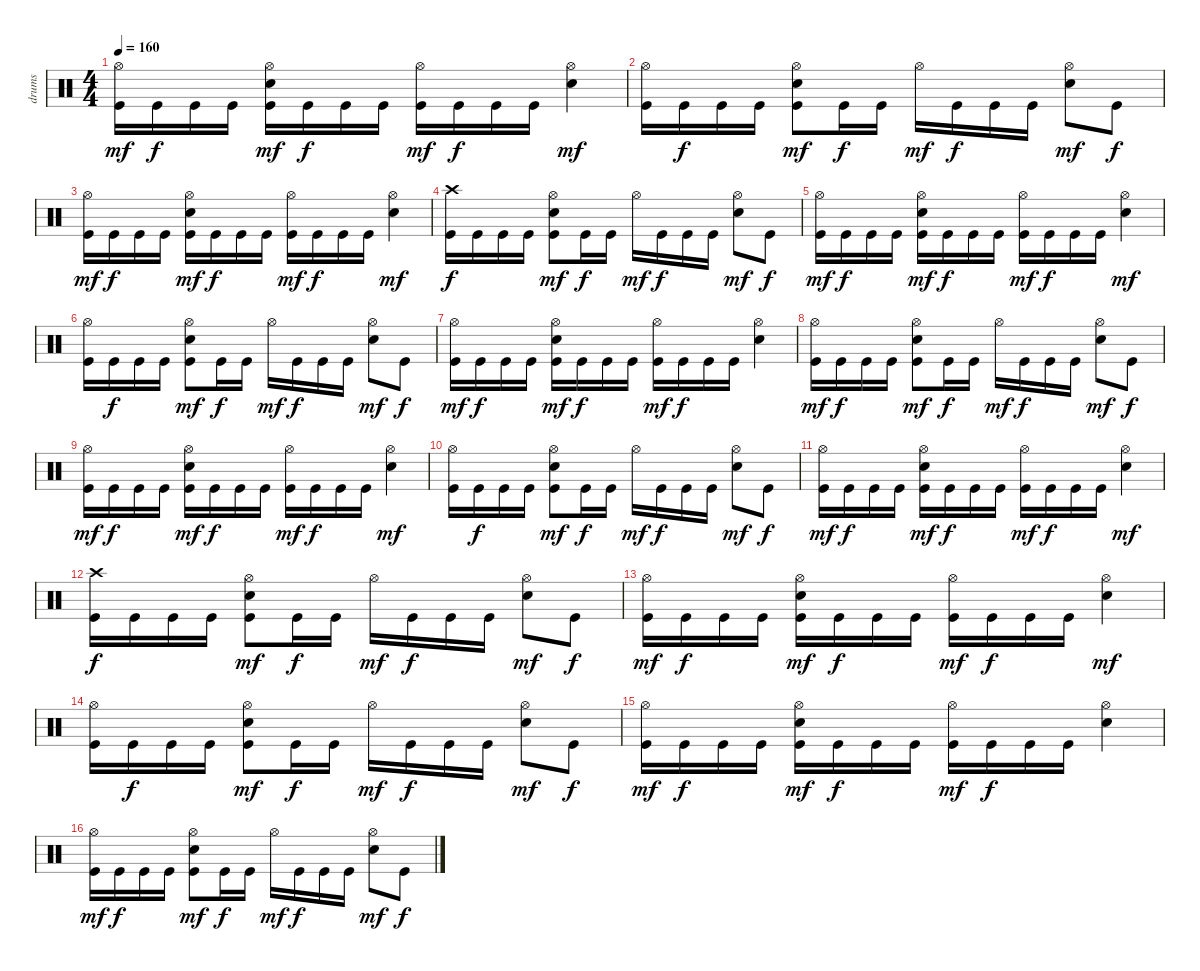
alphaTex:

\track ("drums" "drums") {instrument percussion}
\staff {score}
\articulation defaults
\ts (4 4)
\tempo 160
\clef neutral
\ks c
("Hi-Hat (open)" "Kick (hit)").16{dy mf} "Kick (hit)".16{dy f} "Kick (hit)".16 "Kick (hit)".16 ("Hi-Hat (open)" "Electric Snare (hit)" "Kick (hit)").16{dy mf} "Kick (hit)".16{dy f} "Kick (hit)".16 "Kick (hit)".16 ("Hi-Hat (open)" "Kick (hit)").16{dy mf} "Kick (hit)".16{dy f} "Kick (hit)".16 "Kick (hit)".16 ("Hi-Hat (open)" "Electric Snare (hit)").4{dy mf} |
("Hi-Hat (open)" "Kick (hit)").16 "Kick (hit)".16{dy f} "Kick (hit)".16 "Kick (hit)".16 ("Hi-Hat (open)" "Electric Snare (hit)" "Kick (hit)").8{dy mf} "Kick (hit)".16{dy f} "Kick (hit)".16 "Hi-Hat (open)".16{dy mf} "Kick (hit)".16{dy f} "Kick (hit)".16 "Kick (hit)".16 ("Hi-Hat (open)" "Electric Snare (hit)").8{dy mf} "Kick (hit)".8{dy f} |
("Hi-Hat (open)" "Kick (hit)").16{dy mf} "Kick (hit)".16{dy f} "Kick (hit)".16 "Kick (hit)".16 ("Hi-Hat (open)" "Electric Snare (hit)" "Kick (hit)").16{dy mf} "Kick (hit)".16{dy f} "Kick (hit)".16 "Kick (hit)".16 ("Hi-Hat (open)" "Kick (hit)").16{dy mf} "Kick (hit)".16{dy f} "Kick (hit)".16 "Kick (hit)".16 ("Hi-Hat (open)" "Electric Snare (hit)").4{dy mf} |
("Crash high (hit)" "Kick (hit)").16{dy f} "Kick (hit)".16 "Kick (hit)".16 "Kick (hit)".16 ("Hi-Hat (open)" "Electric Snare (hit)" "Kick (hit)").8{dy mf} "Kick (hit)".16{dy f} "Kick (hit)".16 "Hi-Hat (open)".16{dy mf} "Kick (hit)".16{dy f} "Kick (hit)".16 "Kick (hit)".16 ("Hi-Hat (open)" "Electric Snare (hit)").8{dy mf} "Kick (hit)".8{dy f} |
("Hi-Hat (open)" "Kick (hit)").16{dy mf} "Kick (hit)".16{dy f} "Kick (hit)".16 "Kick (hit)".16 ("Hi-Hat (open)" "Electric Snare (hit)" "Kick (hit)").16{dy mf} "Kick (hit)".16{dy f} "Kick (hit)".16 "Kick (hit)".16 ("Hi-Hat (open)" "Kick (hit)").16{dy mf} "Kick (hit)".16{dy f} "Kick (hit)".16 "Kick (hit)".16 ("Hi-Hat (open)" "Electric Snare (hit)").4{dy mf} |
("Hi-Hat (open)" "Kick (hit)").16 "Kick (hit)".16{dy f} "Kick (hit)".16 "Kick (hit)".16 ("Hi-Hat (open)" "Electric Snare (hit)" "Kick (hit)").8{dy mf} "Kick (hit)".16{dy f} "Kick (hit)".16 "Hi-Hat (open)".16{dy mf} "Kick (hit)".16{dy f} "Kick (hit)".16 "Kick (hit)".16 ("Hi-Hat (open)" "Electric Snare (hit)").8{dy mf} "Kick (hit)".8{dy f} |
("Hi-Hat (open)" "Kick (hit)").16{dy mf} "Kick (hit)".16{dy f} "Kick (hit)".16 "Kick (hit)".16 ("Hi-Hat (open)" "Electric Snare (hit)" "Kick (hit)").16{dy mf} "Kick (hit)".16{dy f} "Kick (hit)".16 "Kick (hit)".16 ("Hi-Hat (open)" "Kick (hit)").16{dy mf} "Kick (hit)".16{dy f} "Kick (hit)".16 "Kick (hit)".16 ("Hi-Hat (open)" "Electric Snare (hit)").4 |
("Hi-Hat (open)" "Kick (hit)").16{dy mf} "Kick (hit)".16{dy f} "Kick (hit)".16 "Kick (hit)".16 ("Hi-Hat (open)" "Electric Snare (hit)" "Kick (hit)").8{dy mf} "Kick (hit)".16{dy f} "Kick (hit)".16 "Hi-Hat (open)".16{dy mf} "Kick (hit)".16{dy f} "Kick (hit)".16 "Kick (hit)".16 ("Hi-Hat (open)" "Electric Snare (hit)").8{dy mf} "Kick (hit)".8{dy f} |
("Hi-Hat (open)" "Kick (hit)").16{dy mf} "Kick (hit)".16{dy f} "Kick (hit)".16 "Kick (hit)".16 ("Hi-Hat (open)" "Electric Snare (hit)" "Kick (hit)").16{dy mf} "Kick (hit)".16{dy f} "Kick (hit)".16 "Kick (hit)".16 ("Hi-Hat (open)" "Kick (hit)").16{dy mf} "Kick (hit)".16{dy f} "Kick (hit)".16 "Kick (hit)".16 ("Hi-Hat (open)" "Electric Snare (hit)").4{dy mf} |
("Hi-Hat (open)" "Kick (hit)").16 "Kick (hit)".16{dy f} "Kick (hit)".16 "Kick (hit)".16 ("Hi-Hat (open)" "Electric Snare (hit)" "Kick (hit)").8{dy mf} "Kick (hit)".16{dy f} "Kick (hit)".16 "Hi-Hat (open)".16{dy mf} "Kick (hit)".16{dy f} "Kick (hit)".16 "Kick (hit)".16 ("Hi-Hat (open)" "Electric Snare (hit)").8{dy mf} "Kick (hit)".8{dy f} |
("Hi-Hat (open)" "Kick (hit)").16{dy mf} "Kick (hit)".16{dy f} "Kick (hit)".16 "Kick (hit)".16 ("Hi-Hat (open)" "Electric Snare (hit)" "Kick (hit)").16{dy mf} "Kick (hit)".16{dy f} "Kick (hit)".16 "Kick (hit)".16 ("Hi-Hat (open)" "Kick (hit)").16{dy mf} "Kick (hit)".16{dy f} "Kick (hit)".16 "Kick (hit)".16 ("Hi-Hat (open)" "Electric Snare (hit)").4{dy mf} |
("Crash high (hit)" "Kick (hit)").16{dy f} "Kick (hit)".16 "Kick (hit)".16 "Kick (hit)".16 ("Hi-Hat (open)" "Electric Snare (hit)" "Kick (hit)").8{dy mf} "Kick (hit)".16{dy f} "Kick (hit)".16 "Hi-Hat (open)".16{dy mf} "Kick (hit)".16{dy f} "Kick (hit)".16 "Kick (hit)".16 ("Hi-Hat (open)" "Electric Snare (hit)").8{dy mf} "Kick (hit)".8{dy f} |
("Hi-Hat (open)" "Kick (hit)").16{dy mf} "Kick (hit)".16{dy f} "Kick (hit)".16 "Kick (hit)".16 ("Hi-Hat (open)" "Electric Snare (hit)" "Kick (hit)").16{dy mf} "Kick (hit)".16{dy f} "Kick (hit)".16 "Kick (hit)".16 ("Hi-Hat (open)" "Kick (hit)").16{dy mf} "Kick (hit)".16{dy f} "Kick (hit)".16 "Kick (hit)".16 ("Hi-Hat (open)" "Electric Snare (hit)").4{dy mf} |
("Hi-Hat (open)" "Kick (hit)").16 "Kick (hit)".16{dy f} "Kick (hit)".16 "Kick (hit)".16 ("Hi-Hat (open)" "Electric Snare (hit)" "Kick (hit)").8{dy mf} "Kick (hit)".16{dy f} "Kick (hit)".16 "Hi-Hat (open)".16{dy mf} "Kick (hit)".16{dy f} "Kick (hit)".16 "Kick (hit)".16 ("Hi-Hat (open)" "Electric Snare (hit)").8{dy mf} "Kick (hit)".8{dy f} |
("Hi-Hat (open)" "Kick (hit)").16{dy mf} "Kick (hit)".16{dy f} "Kick (hit)".16 "Kick (hit)".16 ("Hi-Hat (open)" "Electric Snare (hit)" "Kick (hit)").16{dy mf} "Kick (hit)".16{dy f} "Kick (hit)".16 "Kick (hit)".16 ("Hi-Hat (open)" "Kick (hit)").16{dy mf} "Kick (hit)".16{dy f} "Kick (hit)".16 "Kick (hit)".16 ("Hi-Hat (open)" "Electric Snare (hit)").4 |
("Hi-Hat (open)" "Kick (hit)").16{dy mf} "Kick (hit)".16{dy f} "Kick (hit)".16 "Kick (hit)".16 ("Hi-Hat (open)" "Electric Snare (hit)" "Kick (hit)").8{dy mf} "Kick (hit)".16{dy f} "Kick (hit)".16 "Hi-Hat (open)".16{dy mf} "Kick (hit)".16{dy f} "Kick (hit)".16 "Kick (hit)".16 ("Hi-Hat (open)" "Electric Snare (hit)").8{dy mf} "Kick (hit)".8{dy f}
